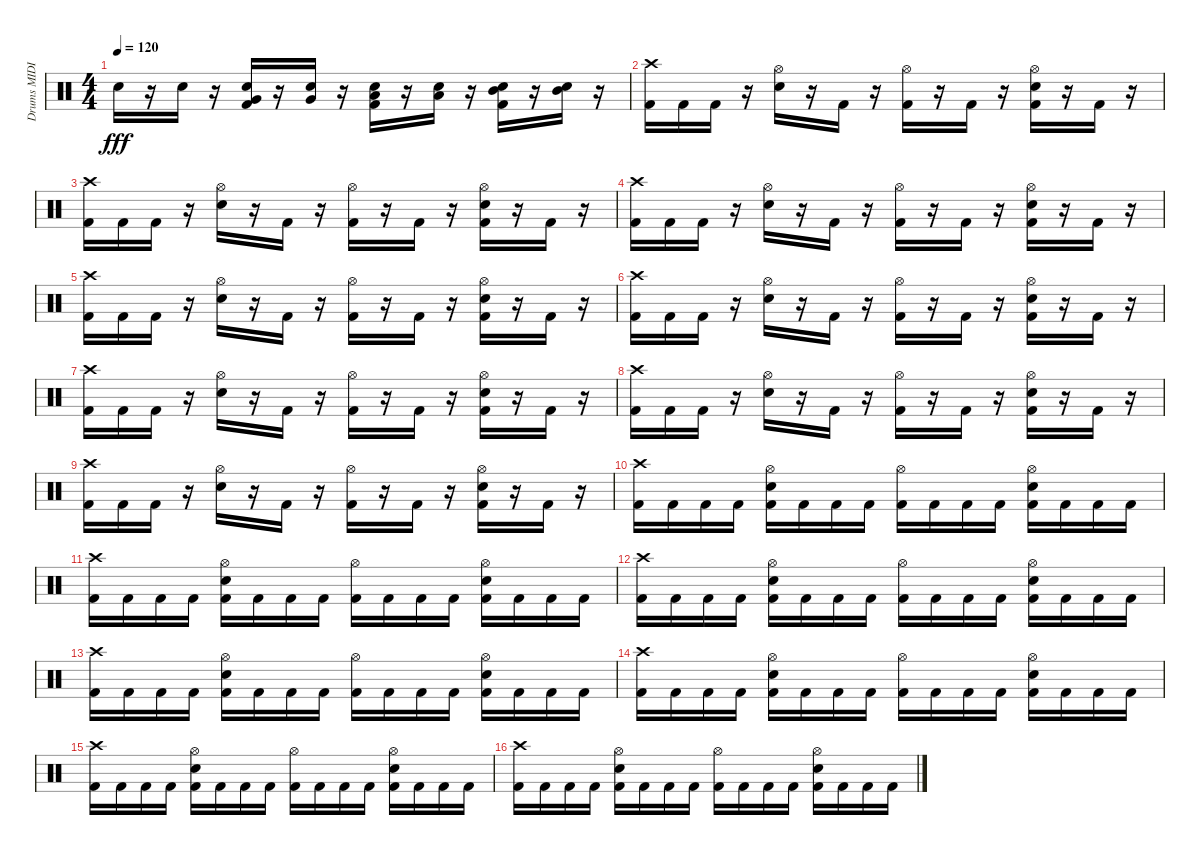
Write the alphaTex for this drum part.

\track ("Drums MIDI" "Drums MIDI") {instrument percussion}
\staff {score}
\articulation defaults
\ts (4 4)
\tempo 120
\clef neutral
\ks c "Snare (hit) 2".16{dy fff}
r.16 "Snare (hit) 2".16 r.16 ("Kick (hit) 2" "Snare (hit) 2" "Very Low Tom (hit)").16 r.16 ("Snare (hit) 2" "Very Low Tom (hit)").16 r.16 ("Kick (hit) 2" "Snare (hit) 2" "Low Tom (hit)").16 r.16 ("Snare (hit) 2" "Low Tom (hit)").16 r.16 ("Kick (hit) 2" "Snare (hit) 2" "Mid Tom (hit)").16 r.16 ("Snare (hit) 2" "Mid Tom (hit)").16 r.16 |
("Kick (hit) 2" "Crash high (hit)").16 "Kick (hit) 2".16 "Kick (hit) 2".16 r.16 ("Snare (hit) 2" "Hi-Hat (open)").16 r.16 "Kick (hit) 2".16 r.16 ("Kick (hit) 2" "Hi-Hat (open)").16 r.16 "Kick (hit) 2".16 r.16 ("Kick (hit) 2" "Snare (hit) 2" "Hi-Hat (open)").16 r.16 "Kick (hit) 2".16 r.16 |
("Kick (hit) 2" "Crash high (hit)").16 "Kick (hit) 2".16 "Kick (hit) 2".16 r.16 ("Snare (hit) 2" "Hi-Hat (open)").16 r.16 "Kick (hit) 2".16 r.16 ("Kick (hit) 2" "Hi-Hat (open)").16 r.16 "Kick (hit) 2".16 r.16 ("Kick (hit) 2" "Snare (hit) 2" "Hi-Hat (open)").16 r.16 "Kick (hit) 2".16 r.16 |
("Kick (hit) 2" "Crash high (hit)").16 "Kick (hit) 2".16 "Kick (hit) 2".16 r.16 ("Snare (hit) 2" "Hi-Hat (open)").16 r.16 "Kick (hit) 2".16 r.16 ("Kick (hit) 2" "Hi-Hat (open)").16 r.16 "Kick (hit) 2".16 r.16 ("Kick (hit) 2" "Snare (hit) 2" "Hi-Hat (open)").16 r.16 "Kick (hit) 2".16 r.16 |
("Kick (hit) 2" "Crash high (hit)").16 "Kick (hit) 2".16 "Kick (hit) 2".16 r.16 ("Snare (hit) 2" "Hi-Hat (open)").16 r.16 "Kick (hit) 2".16 r.16 ("Kick (hit) 2" "Hi-Hat (open)").16 r.16 "Kick (hit) 2".16 r.16 ("Kick (hit) 2" "Snare (hit) 2" "Hi-Hat (open)").16 r.16 "Kick (hit) 2".16 r.16 |
("Kick (hit) 2" "Crash high (hit)").16 "Kick (hit) 2".16 "Kick (hit) 2".16 r.16 ("Snare (hit) 2" "Hi-Hat (open)").16 r.16 "Kick (hit) 2".16 r.16 ("Kick (hit) 2" "Hi-Hat (open)").16 r.16 "Kick (hit) 2".16 r.16 ("Kick (hit) 2" "Snare (hit) 2" "Hi-Hat (open)").16 r.16 "Kick (hit) 2".16 r.16 |
("Kick (hit) 2" "Crash high (hit)").16 "Kick (hit) 2".16 "Kick (hit) 2".16 r.16 ("Snare (hit) 2" "Hi-Hat (open)").16 r.16 "Kick (hit) 2".16 r.16 ("Kick (hit) 2" "Hi-Hat (open)").16 r.16 "Kick (hit) 2".16 r.16 ("Kick (hit) 2" "Snare (hit) 2" "Hi-Hat (open)").16 r.16 "Kick (hit) 2".16 r.16 |
("Kick (hit) 2" "Crash high (hit)").16 "Kick (hit) 2".16 "Kick (hit) 2".16 r.16 ("Snare (hit) 2" "Hi-Hat (open)").16 r.16 "Kick (hit) 2".16 r.16 ("Kick (hit) 2" "Hi-Hat (open)").16 r.16 "Kick (hit) 2".16 r.16 ("Kick (hit) 2" "Snare (hit) 2" "Hi-Hat (open)").16 r.16 "Kick (hit) 2".16 r.16 |
("Kick (hit) 2" "Crash high (hit)").16 "Kick (hit) 2".16 "Kick (hit) 2".16 r.16 ("Snare (hit) 2" "Hi-Hat (open)").16 r.16 "Kick (hit) 2".16 r.16 ("Kick (hit) 2" "Hi-Hat (open)").16 r.16 "Kick (hit) 2".16 r.16 ("Kick (hit) 2" "Snare (hit) 2" "Hi-Hat (open)").16 r.16 "Kick (hit) 2".16 r.16 |
("Kick (hit) 2" "Crash high (hit)").16 "Kick (hit) 2".16 "Kick (hit) 2".16 "Kick (hit) 2".16 ("Kick (hit) 2" "Snare (hit) 2" "Hi-Hat (open)").16 "Kick (hit) 2".16 "Kick (hit) 2".16 "Kick (hit) 2".16 ("Kick (hit) 2" "Hi-Hat (open)").16 "Kick (hit) 2".16 "Kick (hit) 2".16 "Kick (hit) 2".16 ("Kick (hit) 2" "Snare (hit) 2" "Hi-Hat (open)").16 "Kick (hit) 2".16 "Kick (hit) 2".16 "Kick (hit) 2".16 |
("Kick (hit) 2" "Crash high (hit)").16 "Kick (hit) 2".16 "Kick (hit) 2".16 "Kick (hit) 2".16 ("Kick (hit) 2" "Snare (hit) 2" "Hi-Hat (open)").16 "Kick (hit) 2".16 "Kick (hit) 2".16 "Kick (hit) 2".16 ("Kick (hit) 2" "Hi-Hat (open)").16 "Kick (hit) 2".16 "Kick (hit) 2".16 "Kick (hit) 2".16 ("Kick (hit) 2" "Snare (hit) 2" "Hi-Hat (open)").16 "Kick (hit) 2".16 "Kick (hit) 2".16 "Kick (hit) 2".16 |
("Kick (hit) 2" "Crash high (hit)").16 "Kick (hit) 2".16 "Kick (hit) 2".16 "Kick (hit) 2".16 ("Kick (hit) 2" "Snare (hit) 2" "Hi-Hat (open)").16 "Kick (hit) 2".16 "Kick (hit) 2".16 "Kick (hit) 2".16 ("Kick (hit) 2" "Hi-Hat (open)").16 "Kick (hit) 2".16 "Kick (hit) 2".16 "Kick (hit) 2".16 ("Kick (hit) 2" "Snare (hit) 2" "Hi-Hat (open)").16 "Kick (hit) 2".16 "Kick (hit) 2".16 "Kick (hit) 2".16 |
("Kick (hit) 2" "Crash high (hit)").16 "Kick (hit) 2".16 "Kick (hit) 2".16 "Kick (hit) 2".16 ("Kick (hit) 2" "Snare (hit) 2" "Hi-Hat (open)").16 "Kick (hit) 2".16 "Kick (hit) 2".16 "Kick (hit) 2".16 ("Kick (hit) 2" "Hi-Hat (open)").16 "Kick (hit) 2".16 "Kick (hit) 2".16 "Kick (hit) 2".16 ("Kick (hit) 2" "Snare (hit) 2" "Hi-Hat (open)").16 "Kick (hit) 2".16 "Kick (hit) 2".16 "Kick (hit) 2".16 |
("Kick (hit) 2" "Crash high (hit)").16 "Kick (hit) 2".16 "Kick (hit) 2".16 "Kick (hit) 2".16 ("Kick (hit) 2" "Snare (hit) 2" "Hi-Hat (open)").16 "Kick (hit) 2".16 "Kick (hit) 2".16 "Kick (hit) 2".16 ("Kick (hit) 2" "Hi-Hat (open)").16 "Kick (hit) 2".16 "Kick (hit) 2".16 "Kick (hit) 2".16 ("Kick (hit) 2" "Snare (hit) 2" "Hi-Hat (open)").16 "Kick (hit) 2".16 "Kick (hit) 2".16 "Kick (hit) 2".16 |
("Kick (hit) 2" "Crash high (hit)").16 "Kick (hit) 2".16 "Kick (hit) 2".16 "Kick (hit) 2".16 ("Kick (hit) 2" "Snare (hit) 2" "Hi-Hat (open)").16 "Kick (hit) 2".16 "Kick (hit) 2".16 "Kick (hit) 2".16 ("Kick (hit) 2" "Hi-Hat (open)").16 "Kick (hit) 2".16 "Kick (hit) 2".16 "Kick (hit) 2".16 ("Kick (hit) 2" "Snare (hit) 2" "Hi-Hat (open)").16 "Kick (hit) 2".16 "Kick (hit) 2".16 "Kick (hit) 2".16 |
("Kick (hit) 2" "Crash high (hit)").16 "Kick (hit) 2".16 "Kick (hit) 2".16 "Kick (hit) 2".16 ("Kick (hit) 2" "Snare (hit) 2" "Hi-Hat (open)").16 "Kick (hit) 2".16 "Kick (hit) 2".16 "Kick (hit) 2".16 ("Kick (hit) 2" "Hi-Hat (open)").16 "Kick (hit) 2".16 "Kick (hit) 2".16 "Kick (hit) 2".16 ("Kick (hit) 2" "Snare (hit) 2" "Hi-Hat (open)").16 "Kick (hit) 2".16 "Kick (hit) 2".16 "Kick (hit) 2".16
